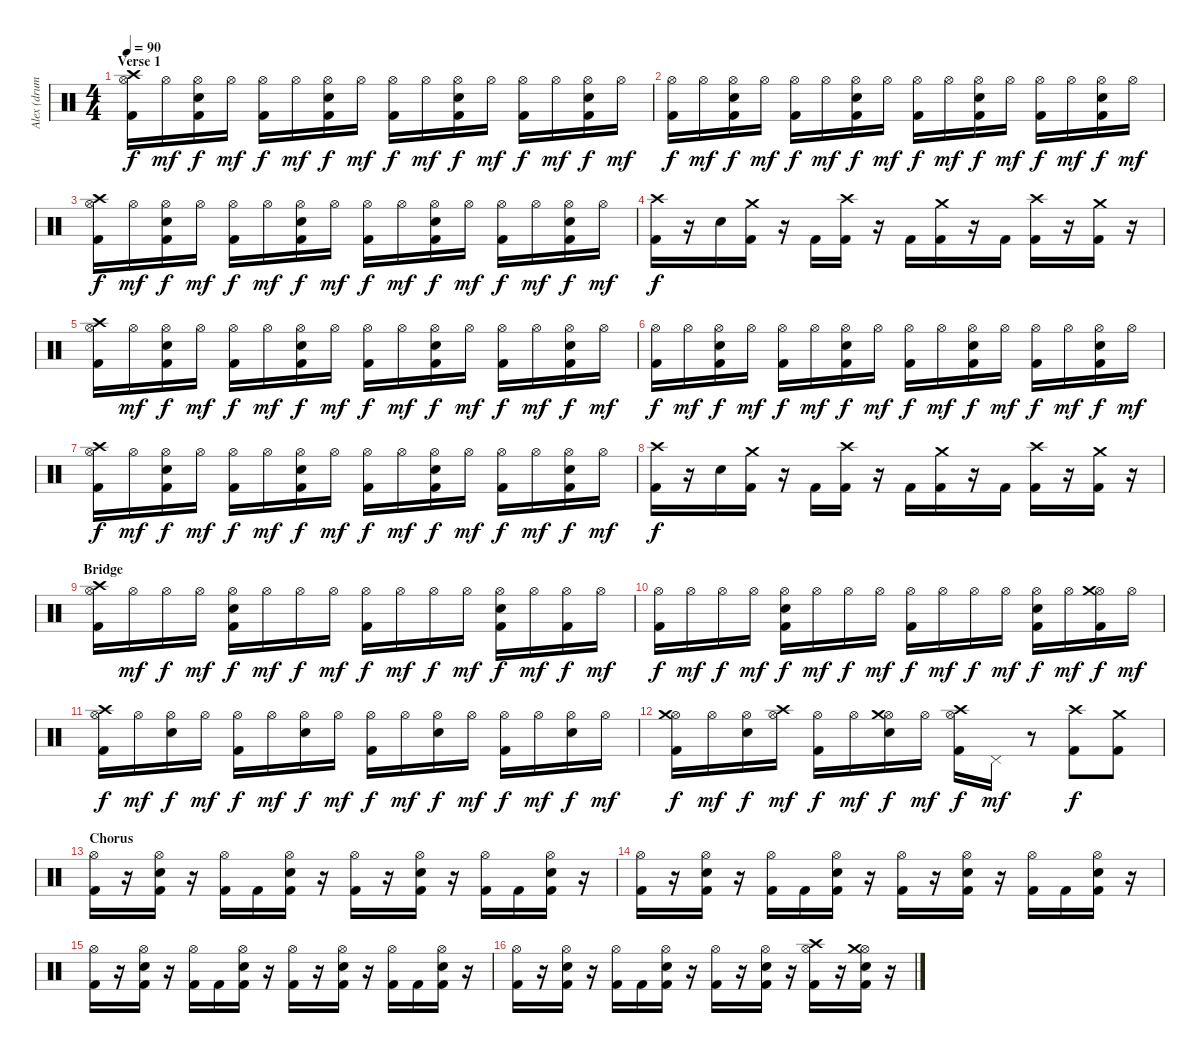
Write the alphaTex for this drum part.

\track ("Alex (drums)" "Alex (drum") {instrument percussion}
\staff {score}
\articulation defaults
\ts (4 4)
\section ("" "Verse 1")
\tempo 90
\clef neutral
\ks c
("Hi-Hat (open)" "Kick (hit) 2" "Crash high (hit)").16{dy f} "Hi-Hat (open)".16{dy mf} ("Hi-Hat (open)" "Snare (hit) 2" "Kick (hit) 2").16{dy f} "Hi-Hat (open)".16{dy mf} ("Hi-Hat (open)" "Kick (hit) 2").16{dy f} "Hi-Hat (open)".16{dy mf} ("Hi-Hat (open)" "Snare (hit) 2" "Kick (hit) 2").16{dy f} "Hi-Hat (open)".16{dy mf} ("Hi-Hat (open)" "Kick (hit) 2").16{dy f} "Hi-Hat (open)".16{dy mf} ("Hi-Hat (open)" "Snare (hit) 2" "Kick (hit) 2").16{dy f} "Hi-Hat (open)".16{dy mf} ("Hi-Hat (open)" "Kick (hit) 2").16{dy f} "Hi-Hat (open)".16{dy mf} ("Hi-Hat (open)" "Snare (hit) 2" "Kick (hit) 2").16{dy f} "Hi-Hat (open)".16{dy mf} |
("Hi-Hat (open)" "Kick (hit) 2").16{dy f} "Hi-Hat (open)".16{dy mf} ("Hi-Hat (open)" "Snare (hit) 2" "Kick (hit) 2").16{dy f} "Hi-Hat (open)".16{dy mf} ("Hi-Hat (open)" "Kick (hit) 2").16{dy f} "Hi-Hat (open)".16{dy mf} ("Hi-Hat (open)" "Snare (hit) 2" "Kick (hit) 2").16{dy f} "Hi-Hat (open)".16{dy mf} ("Hi-Hat (open)" "Kick (hit) 2").16{dy f} "Hi-Hat (open)".16{dy mf} ("Hi-Hat (open)" "Snare (hit) 2" "Kick (hit) 2").16{dy f} "Hi-Hat (open)".16{dy mf} ("Hi-Hat (open)" "Kick (hit) 2").16{dy f} "Hi-Hat (open)".16{dy mf} ("Hi-Hat (open)" "Snare (hit) 2" "Kick (hit) 2").16{dy f} "Hi-Hat (open)".16{dy mf} |
("Hi-Hat (open)" "Kick (hit) 2" "Crash high (hit)").16{dy f} "Hi-Hat (open)".16{dy mf} ("Hi-Hat (open)" "Snare (hit) 2" "Kick (hit) 2").16{dy f} "Hi-Hat (open)".16{dy mf} ("Hi-Hat (open)" "Kick (hit) 2").16{dy f} "Hi-Hat (open)".16{dy mf} ("Hi-Hat (open)" "Snare (hit) 2" "Kick (hit) 2").16{dy f} "Hi-Hat (open)".16{dy mf} ("Hi-Hat (open)" "Kick (hit) 2").16{dy f} "Hi-Hat (open)".16{dy mf} ("Hi-Hat (open)" "Snare (hit) 2" "Kick (hit) 2").16{dy f} "Hi-Hat (open)".16{dy mf} ("Hi-Hat (open)" "Kick (hit) 2").16{dy f} "Hi-Hat (open)".16{dy mf} ("Hi-Hat (open)" "Snare (hit) 2" "Kick (hit) 2").16{dy f} "Hi-Hat (open)".16{dy mf} |
("Kick (hit) 2" "Crash high (hit)").16{dy f} r.16 "Snare (hit) 2".16 ("Kick (hit) 2" "Crash medium (hit)").16 r.16 "Kick (hit) 2".16 ("Kick (hit) 2" "Crash high (hit)").16 r.16 "Kick (hit) 2".16 ("Kick (hit) 2" "Crash medium (hit)").16 r.16 "Kick (hit) 2".16 ("Kick (hit) 2" "Crash high (hit)").16 r.16 ("Kick (hit) 2" "Crash medium (hit)").16 r.16 |
("Hi-Hat (open)" "Kick (hit) 2" "Crash high (hit)").16 "Hi-Hat (open)".16{dy mf} ("Hi-Hat (open)" "Snare (hit) 2" "Kick (hit) 2").16{dy f} "Hi-Hat (open)".16{dy mf} ("Hi-Hat (open)" "Kick (hit) 2").16{dy f} "Hi-Hat (open)".16{dy mf} ("Hi-Hat (open)" "Snare (hit) 2" "Kick (hit) 2").16{dy f} "Hi-Hat (open)".16{dy mf} ("Hi-Hat (open)" "Kick (hit) 2").16{dy f} "Hi-Hat (open)".16{dy mf} ("Hi-Hat (open)" "Snare (hit) 2" "Kick (hit) 2").16{dy f} "Hi-Hat (open)".16{dy mf} ("Hi-Hat (open)" "Kick (hit) 2").16{dy f} "Hi-Hat (open)".16{dy mf} ("Hi-Hat (open)" "Snare (hit) 2" "Kick (hit) 2").16{dy f} "Hi-Hat (open)".16{dy mf} |
("Hi-Hat (open)" "Kick (hit) 2").16{dy f} "Hi-Hat (open)".16{dy mf} ("Hi-Hat (open)" "Snare (hit) 2" "Kick (hit) 2").16{dy f} "Hi-Hat (open)".16{dy mf} ("Hi-Hat (open)" "Kick (hit) 2").16{dy f} "Hi-Hat (open)".16{dy mf} ("Hi-Hat (open)" "Snare (hit) 2" "Kick (hit) 2").16{dy f} "Hi-Hat (open)".16{dy mf} ("Hi-Hat (open)" "Kick (hit) 2").16{dy f} "Hi-Hat (open)".16{dy mf} ("Hi-Hat (open)" "Snare (hit) 2" "Kick (hit) 2").16{dy f} "Hi-Hat (open)".16{dy mf} ("Hi-Hat (open)" "Kick (hit) 2").16{dy f} "Hi-Hat (open)".16{dy mf} ("Hi-Hat (open)" "Snare (hit) 2" "Kick (hit) 2").16{dy f} "Hi-Hat (open)".16{dy mf} |
("Hi-Hat (open)" "Kick (hit) 2" "Crash high (hit)").16{dy f} "Hi-Hat (open)".16{dy mf} ("Hi-Hat (open)" "Snare (hit) 2" "Kick (hit) 2").16{dy f} "Hi-Hat (open)".16{dy mf} ("Hi-Hat (open)" "Kick (hit) 2").16{dy f} "Hi-Hat (open)".16{dy mf} ("Hi-Hat (open)" "Snare (hit) 2" "Kick (hit) 2").16{dy f} "Hi-Hat (open)".16{dy mf} ("Hi-Hat (open)" "Kick (hit) 2").16{dy f} "Hi-Hat (open)".16{dy mf} ("Hi-Hat (open)" "Snare (hit) 2" "Kick (hit) 2").16{dy f} "Hi-Hat (open)".16{dy mf} ("Hi-Hat (open)" "Kick (hit) 2").16{dy f} "Hi-Hat (open)".16{dy mf} ("Hi-Hat (open)" "Snare (hit) 2" "Kick (hit) 2").16{dy f} "Hi-Hat (open)".16{dy mf} |
("Kick (hit) 2" "Crash high (hit)").16{dy f} r.16 "Snare (hit) 2".16 ("Kick (hit) 2" "Crash medium (hit)").16 r.16 "Kick (hit) 2".16 ("Kick (hit) 2" "Crash high (hit)").16 r.16 "Kick (hit) 2".16 ("Kick (hit) 2" "Crash medium (hit)").16 r.16 "Kick (hit) 2".16 ("Kick (hit) 2" "Crash high (hit)").16 r.16 ("Kick (hit) 2" "Crash medium (hit)").16 r.16 |
\section ("" "Bridge")
("Hi-Hat (open)" "Kick (hit) 2" "Crash high (hit)").16 "Hi-Hat (open)".16{dy mf} "Hi-Hat (open)".16{dy f} "Hi-Hat (open)".16{dy mf} ("Hi-Hat (open)" "Snare (hit) 2" "Kick (hit) 2").16{dy f} "Hi-Hat (open)".16{dy mf} "Hi-Hat (open)".16{dy f} "Hi-Hat (open)".16{dy mf} ("Hi-Hat (open)" "Kick (hit) 2").16{dy f} "Hi-Hat (open)".16{dy mf} "Hi-Hat (open)".16{dy f} "Hi-Hat (open)".16{dy mf} ("Hi-Hat (open)" "Snare (hit) 2" "Kick (hit) 2").16{dy f} "Hi-Hat (open)".16{dy mf} ("Hi-Hat (open)" "Kick (hit) 2").16{dy f} "Hi-Hat (open)".16{dy mf} |
("Hi-Hat (open)" "Kick (hit) 2").16{dy f} "Hi-Hat (open)".16{dy mf} "Hi-Hat (open)".16{dy f} "Hi-Hat (open)".16{dy mf} ("Hi-Hat (open)" "Snare (hit) 2" "Kick (hit) 2").16{dy f} "Hi-Hat (open)".16{dy mf} "Hi-Hat (open)".16{dy f} "Hi-Hat (open)".16{dy mf} ("Hi-Hat (open)" "Kick (hit) 2").16{dy f} "Hi-Hat (open)".16{dy mf} "Hi-Hat (open)".16{dy f} "Hi-Hat (open)".16{dy mf} ("Hi-Hat (open)" "Snare (hit) 2" "Kick (hit) 2").16{dy f} "Hi-Hat (open)".16{dy mf} ("Hi-Hat (open)" "Kick (hit) 2" "Crash medium (hit)").16{dy f} "Hi-Hat (open)".16{dy mf} |
("Hi-Hat (open)" "Kick (hit) 2" "Crash high (hit)").16{dy f} "Hi-Hat (open)".16{dy mf} ("Hi-Hat (open)" "Snare (hit) 2").16{dy f} "Hi-Hat (open)".16{dy mf} ("Hi-Hat (open)" "Kick (hit) 2").16{dy f} "Hi-Hat (open)".16{dy mf} ("Hi-Hat (open)" "Snare (hit) 2").16{dy f} "Hi-Hat (open)".16{dy mf} ("Hi-Hat (open)" "Kick (hit) 2").16{dy f} "Hi-Hat (open)".16{dy mf} ("Hi-Hat (open)" "Snare (hit) 2").16{dy f} "Hi-Hat (open)".16{dy mf} ("Hi-Hat (open)" "Kick (hit) 2").16{dy f} "Hi-Hat (open)".16{dy mf} ("Hi-Hat (open)" "Snare (hit) 2").16{dy f} "Hi-Hat (open)".16{dy mf} |
("Hi-Hat (open)" "Kick (hit) 2" "Crash medium (hit)").16{dy f} "Hi-Hat (open)".16{dy mf} ("Hi-Hat (open)" "Snare (hit) 2").16{dy f} ("Hi-Hat (open)" "Crash high (hit)").16{dy mf} ("Hi-Hat (open)" "Kick (hit) 2").16{dy f} "Hi-Hat (open)".16{dy mf} ("Hi-Hat (open)" "Snare (hit) 2" "Crash medium (hit)").16{dy f} "Hi-Hat (open)".16{dy mf} ("Hi-Hat (open)" "Kick (hit) 2" "Crash high (hit)").16{dy f} "Pedal Hi-Hat (hit)".16{dy mf} r.8 ("Kick (hit) 2" "Crash high (hit)").8{dy f} ("Kick (hit) 2" "Crash medium (hit)").8 |
\section ("" "Chorus")
("Hi-Hat (open)" "Kick (hit) 2").16 r.16 ("Hi-Hat (open)" "Snare (hit) 2" "Kick (hit) 2").16 r.16 ("Hi-Hat (open)" "Kick (hit) 2").16 "Kick (hit) 2".16 ("Hi-Hat (open)" "Snare (hit) 2" "Kick (hit) 2").16 r.16 ("Hi-Hat (open)" "Kick (hit) 2").16 r.16 ("Hi-Hat (open)" "Snare (hit) 2" "Kick (hit) 2").16 r.16 ("Hi-Hat (open)" "Kick (hit) 2").16 "Kick (hit) 2".16 ("Hi-Hat (open)" "Snare (hit) 2" "Kick (hit) 2").16 r.16 |
("Hi-Hat (open)" "Kick (hit) 2").16 r.16 ("Hi-Hat (open)" "Snare (hit) 2" "Kick (hit) 2").16 r.16 ("Hi-Hat (open)" "Kick (hit) 2").16 "Kick (hit) 2".16 ("Hi-Hat (open)" "Snare (hit) 2" "Kick (hit) 2").16 r.16 ("Hi-Hat (open)" "Kick (hit) 2").16 r.16 ("Hi-Hat (open)" "Snare (hit) 2" "Kick (hit) 2").16 r.16 ("Hi-Hat (open)" "Kick (hit) 2").16 "Kick (hit) 2".16 ("Hi-Hat (open)" "Snare (hit) 2" "Kick (hit) 2").16 r.16 |
("Hi-Hat (open)" "Kick (hit) 2").16 r.16 ("Hi-Hat (open)" "Snare (hit) 2" "Kick (hit) 2").16 r.16 ("Hi-Hat (open)" "Kick (hit) 2").16 "Kick (hit) 2".16 ("Hi-Hat (open)" "Snare (hit) 2" "Kick (hit) 2").16 r.16 ("Hi-Hat (open)" "Kick (hit) 2").16 r.16 ("Hi-Hat (open)" "Snare (hit) 2" "Kick (hit) 2").16 r.16 ("Hi-Hat (open)" "Kick (hit) 2").16 "Kick (hit) 2".16 ("Hi-Hat (open)" "Snare (hit) 2" "Kick (hit) 2").16 r.16 |
("Hi-Hat (open)" "Kick (hit) 2").16 r.16 ("Hi-Hat (open)" "Snare (hit) 2" "Kick (hit) 2").16 r.16 ("Hi-Hat (open)" "Kick (hit) 2").16 "Kick (hit) 2".16 ("Hi-Hat (open)" "Snare (hit) 2" "Kick (hit) 2").16 r.16 ("Hi-Hat (open)" "Kick (hit) 2").16 r.16 ("Hi-Hat (open)" "Snare (hit) 2" "Kick (hit) 2").16 r.16 ("Hi-Hat (open)" "Kick (hit) 2" "Crash high (hit)").16 r.16 ("Hi-Hat (open)" "Snare (hit) 2" "Kick (hit) 2" "Crash medium (hit)").16 r.16
